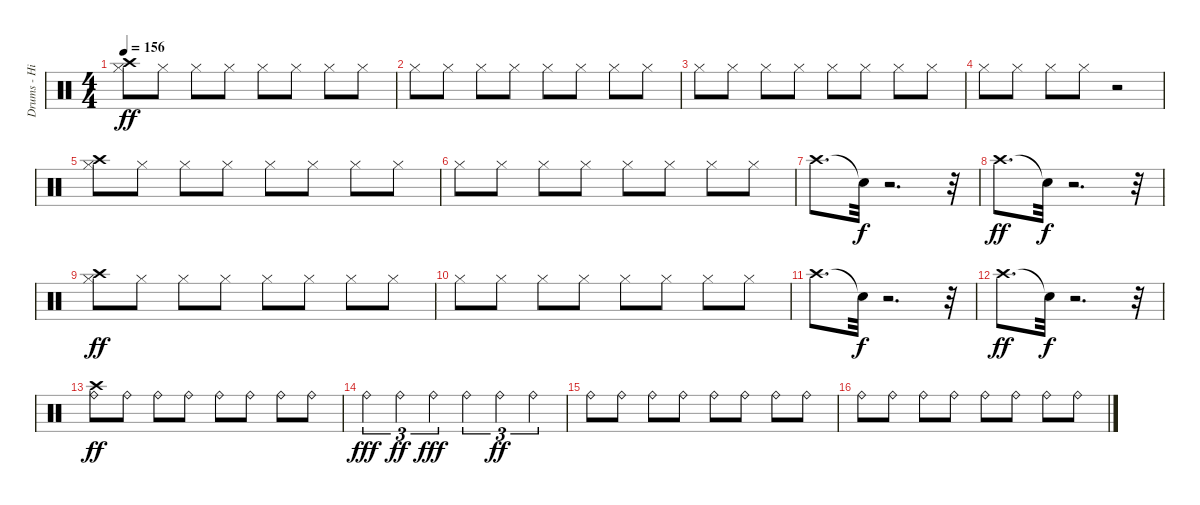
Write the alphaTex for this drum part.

\track ("Drums - Hi Hat/Cymbals" "Drums - Hi") {instrument percussion}
\staff {score}
\articulation defaults
\ts (4 4)
\tempo 156
\clef neutral
\ks c
("Hi-Hat (closed)" "Crash high (hit)").8{dy ff} "Hi-Hat (closed)".8 "Hi-Hat (closed)".8 "Hi-Hat (closed)".8 "Hi-Hat (closed)".8 "Hi-Hat (closed)".8 "Hi-Hat (closed)".8 "Hi-Hat (closed)".8 |
"Hi-Hat (closed)".8 "Hi-Hat (closed)".8 "Hi-Hat (closed)".8 "Hi-Hat (closed)".8 "Hi-Hat (closed)".8 "Hi-Hat (closed)".8 "Hi-Hat (closed)".8 "Hi-Hat (closed)".8 |
"Hi-Hat (closed)".8 "Hi-Hat (closed)".8 "Hi-Hat (closed)".8 "Hi-Hat (closed)".8 "Hi-Hat (closed)".8 "Hi-Hat (closed)".8 "Hi-Hat (closed)".8 "Hi-Hat (closed)".8 |
"Hi-Hat (closed)".8 "Hi-Hat (closed)".8 "Hi-Hat (closed)".8 "Hi-Hat (closed)".8 r.2 |
("Hi-Hat (closed)" "Crash high (hit)").8 "Hi-Hat (closed)".8 "Hi-Hat (closed)".8 "Hi-Hat (closed)".8 "Hi-Hat (closed)".8 "Hi-Hat (closed)".8 "Hi-Hat (closed)".8 "Hi-Hat (closed)".8 |
"Hi-Hat (closed)".8 "Hi-Hat (closed)".8 "Hi-Hat (closed)".8 "Hi-Hat (closed)".8 "Hi-Hat (closed)".8 "Hi-Hat (closed)".8 "Hi-Hat (closed)".8 "Hi-Hat (closed)".8 |
"Crash high (hit)".8{d} "Snare (hit)"{t}.32{dy f} r.2{d} r.32 |
"Crash high (hit)".8{d dy ff} "Snare (hit)"{t}.32{dy f} r.2{d} r.32 |
("Hi-Hat (closed)" "Crash high (hit)").8{dy ff} "Hi-Hat (closed)".8 "Hi-Hat (closed)".8 "Hi-Hat (closed)".8 "Hi-Hat (closed)".8 "Hi-Hat (closed)".8 "Hi-Hat (closed)".8 "Hi-Hat (closed)".8 |
"Hi-Hat (closed)".8 "Hi-Hat (closed)".8 "Hi-Hat (closed)".8 "Hi-Hat (closed)".8 "Hi-Hat (closed)".8 "Hi-Hat (closed)".8 "Hi-Hat (closed)".8 "Hi-Hat (closed)".8 |
"Crash high (hit)".8{d} "Snare (hit)"{t}.32{dy f} r.2{d} r.32 |
"Crash high (hit)".8{d dy ff} "Snare (hit)"{t}.32{dy f} r.2{d} r.32 |
("Crash high (hit)" "Ride (bell)").8{dy ff} "Ride (bell)".8 "Ride (bell)".8 "Ride (bell)".8 "Ride (bell)".8 "Ride (bell)".8 "Ride (bell)".8 "Ride (bell)".8 |
"Ride (bell)".4{tu (3 2) dy fff} "Ride (bell)".4{tu (3 2) dy ff} "Ride (bell)".4{tu (3 2) dy fff} "Ride (bell)".4{tu (3 2)} "Ride (bell)".4{tu (3 2) dy ff} "Ride (bell)".4{tu (3 2)} |
"Ride (bell)".8 "Ride (bell)".8 "Ride (bell)".8 "Ride (bell)".8 "Ride (bell)".8 "Ride (bell)".8 "Ride (bell)".8 "Ride (bell)".8 |
"Ride (bell)".8 "Ride (bell)".8 "Ride (bell)".8 "Ride (bell)".8 "Ride (bell)".8 "Ride (bell)".8 "Ride (bell)".8 "Ride (bell)".8
